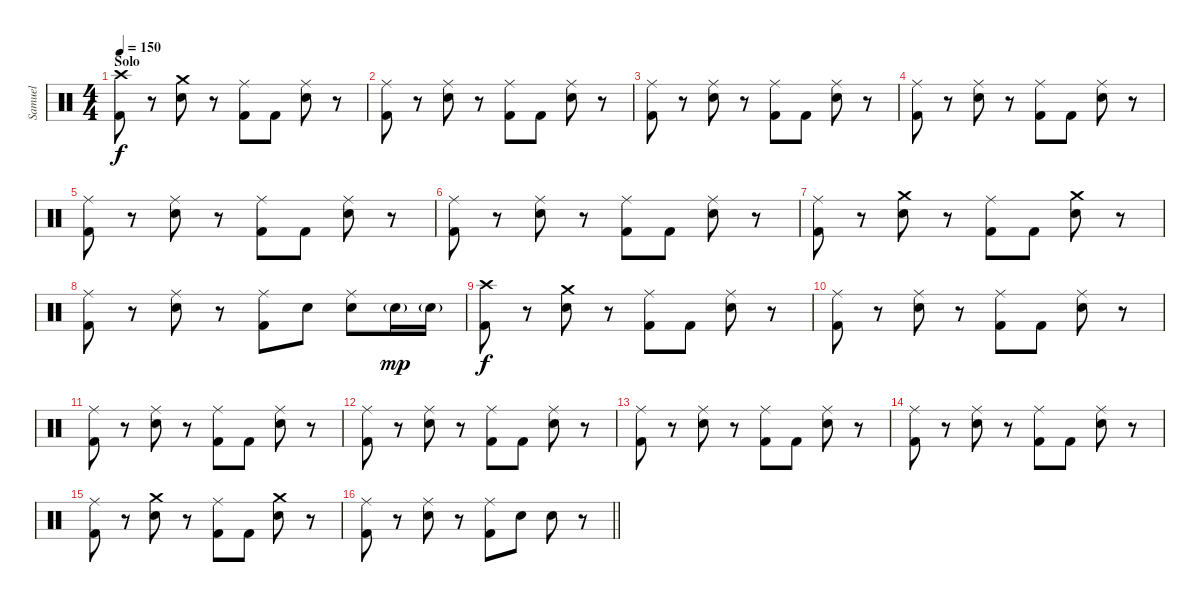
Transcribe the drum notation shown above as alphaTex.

\track ("Samuel" "Samuel") {instrument percussion}
\staff {score}
\articulation defaults
\ts (4 4)
\section ("" "Solo")
\tempo 150
\clef neutral
\ks c
("Crash high (hit)" "Kick (hit) 2").8{dy f} r.8 ("Crash medium (hit)" "Snare (hit) 2").8 r.8 ("Ride (middle)" "Kick (hit) 2").8 "Kick (hit) 2".8 ("Ride (middle)" "Snare (hit) 2").8 r.8 |
("Ride (middle)" "Kick (hit) 2").8 r.8 ("Ride (middle)" "Snare (hit) 2").8 r.8 ("Ride (middle)" "Kick (hit) 2").8 "Kick (hit) 2".8 ("Ride (middle)" "Snare (hit) 2").8 r.8 |
("Ride (middle)" "Kick (hit) 2").8 r.8 ("Ride (middle)" "Snare (hit) 2").8 r.8 ("Ride (middle)" "Kick (hit) 2").8 "Kick (hit) 2".8 ("Ride (middle)" "Snare (hit) 2").8 r.8 |
("Ride (middle)" "Kick (hit) 2").8 r.8 ("Ride (middle)" "Snare (hit) 2").8 r.8 ("Ride (middle)" "Kick (hit) 2").8 "Kick (hit) 2".8 ("Ride (middle)" "Snare (hit) 2").8 r.8 |
("Ride (middle)" "Kick (hit) 2").8 r.8 ("Ride (middle)" "Snare (hit) 2").8 r.8 ("Ride (middle)" "Kick (hit) 2").8 "Kick (hit) 2".8 ("Ride (middle)" "Snare (hit) 2").8 r.8 |
("Ride (middle)" "Kick (hit) 2").8 r.8 ("Ride (middle)" "Snare (hit) 2").8 r.8 ("Ride (middle)" "Kick (hit) 2").8 "Kick (hit) 2".8 ("Ride (middle)" "Snare (hit) 2").8 r.8 |
("Ride (middle)" "Kick (hit) 2").8 r.8 ("Crash medium (hit)" "Snare (hit) 2").8 r.8 ("Ride (middle)" "Kick (hit) 2").8 "Kick (hit) 2".8 ("Crash medium (hit)" "Snare (hit) 2").8 r.8 |
("Ride (middle)" "Kick (hit) 2").8 r.8 ("Ride (middle)" "Snare (hit) 2").8 r.8 ("Ride (middle)" "Kick (hit) 2").8 "Snare (hit) 2".8 ("Ride (middle)" "Snare (hit) 2").8 "Snare (hit) 2"{g}.16{dy mp} "Snare (hit) 2"{g}.16 |
("Crash high (hit)" "Kick (hit) 2").8{dy f} r.8 ("Crash medium (hit)" "Snare (hit) 2").8 r.8 ("Ride (middle)" "Kick (hit) 2").8 "Kick (hit) 2".8 ("Ride (middle)" "Snare (hit) 2").8 r.8 |
("Ride (middle)" "Kick (hit) 2").8 r.8 ("Ride (middle)" "Snare (hit) 2").8 r.8 ("Ride (middle)" "Kick (hit) 2").8 "Kick (hit) 2".8 ("Ride (middle)" "Snare (hit) 2").8 r.8 |
("Ride (middle)" "Kick (hit) 2").8 r.8 ("Ride (middle)" "Snare (hit) 2").8 r.8 ("Ride (middle)" "Kick (hit) 2").8 "Kick (hit) 2".8 ("Ride (middle)" "Snare (hit) 2").8 r.8 |
("Ride (middle)" "Kick (hit) 2").8 r.8 ("Ride (middle)" "Snare (hit) 2").8 r.8 ("Ride (middle)" "Kick (hit) 2").8 "Kick (hit) 2".8 ("Ride (middle)" "Snare (hit) 2").8 r.8 |
("Ride (middle)" "Kick (hit) 2").8 r.8 ("Ride (middle)" "Snare (hit) 2").8 r.8 ("Ride (middle)" "Kick (hit) 2").8 "Kick (hit) 2".8 ("Ride (middle)" "Snare (hit) 2").8 r.8 |
("Ride (middle)" "Kick (hit) 2").8 r.8 ("Ride (middle)" "Snare (hit) 2").8 r.8 ("Ride (middle)" "Kick (hit) 2").8 "Kick (hit) 2".8 ("Ride (middle)" "Snare (hit) 2").8 r.8 |
("Ride (middle)" "Kick (hit) 2").8 r.8 ("Crash medium (hit)" "Snare (hit) 2").8 r.8 ("Ride (middle)" "Kick (hit) 2").8 "Kick (hit) 2".8 ("Crash medium (hit)" "Snare (hit) 2").8 r.8 |
\barLineRight lightlight
("Ride (middle)" "Kick (hit) 2").8 r.8 ("Ride (middle)" "Snare (hit) 2").8 r.8 ("Ride (middle)" "Kick (hit) 2").8 "Snare (hit) 2".8 "Snare (hit) 2".8 r.8
